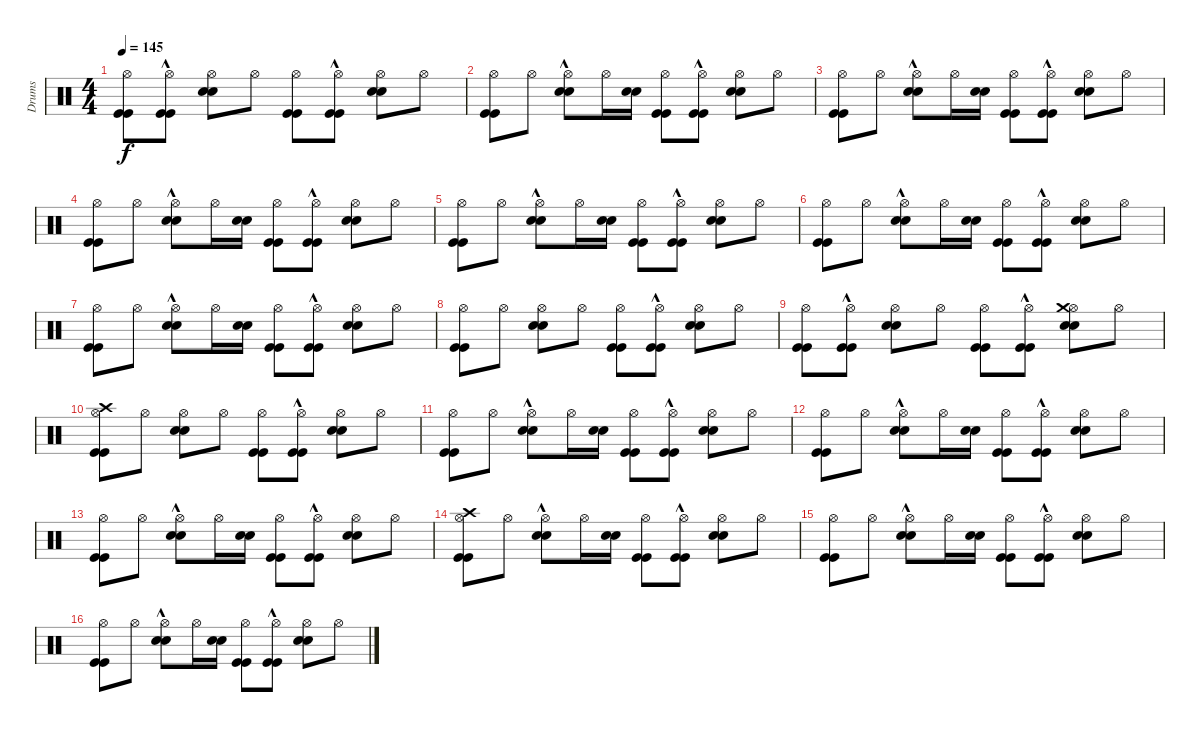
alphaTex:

\track ("Drums" "Drums") {instrument percussion}
\staff {score}
\articulation defaults
\ts (4 4)
\tempo 145
\clef neutral
\ks c
("Kick (hit)" "Kick (hit)" "Hi-Hat (open)").8{dy f} ("Kick (hit)"{hac} "Kick (hit)"{hac} "Hi-Hat (open)").8 ("Snare (hit) 2" "Snare (hit) 2" "Hi-Hat (open)").8 "Hi-Hat (open)".8 ("Kick (hit)" "Kick (hit)" "Hi-Hat (open)").8 ("Kick (hit)"{hac} "Kick (hit)"{hac} "Hi-Hat (open)").8 ("Snare (hit) 2" "Snare (hit) 2" "Hi-Hat (open)").8 "Hi-Hat (open)".8 |
("Kick (hit)" "Kick (hit)" "Hi-Hat (open)").8 "Hi-Hat (open)".8 ("Snare (hit) 2"{hac} "Snare (hit) 2"{hac} "Hi-Hat (open)").8 "Hi-Hat (open)".16 ("Snare (hit) 2" "Snare (hit) 2").16 ("Kick (hit)" "Kick (hit)" "Hi-Hat (open)").8 ("Kick (hit)"{hac} "Kick (hit)"{hac} "Hi-Hat (open)").8 ("Snare (hit) 2" "Snare (hit) 2" "Hi-Hat (open)").8 "Hi-Hat (open)".8 |
("Kick (hit)" "Kick (hit)" "Hi-Hat (open)").8 "Hi-Hat (open)".8 ("Snare (hit) 2"{hac} "Snare (hit) 2"{hac} "Hi-Hat (open)").8 "Hi-Hat (open)".16 ("Snare (hit) 2" "Snare (hit) 2").16 ("Kick (hit)" "Kick (hit)" "Hi-Hat (open)").8 ("Kick (hit)"{hac} "Kick (hit)"{hac} "Hi-Hat (open)").8 ("Snare (hit) 2" "Snare (hit) 2" "Hi-Hat (open)").8 "Hi-Hat (open)".8 |
("Kick (hit)" "Kick (hit)" "Hi-Hat (open)").8 "Hi-Hat (open)".8 ("Snare (hit) 2"{hac} "Snare (hit) 2"{hac} "Hi-Hat (open)").8 "Hi-Hat (open)".16 ("Snare (hit) 2" "Snare (hit) 2").16 ("Kick (hit)" "Kick (hit)" "Hi-Hat (open)").8 ("Kick (hit)"{hac} "Kick (hit)"{hac} "Hi-Hat (open)").8 ("Snare (hit) 2" "Snare (hit) 2" "Hi-Hat (open)").8 "Hi-Hat (open)".8 |
("Kick (hit)" "Kick (hit)" "Hi-Hat (open)").8 "Hi-Hat (open)".8 ("Snare (hit) 2"{hac} "Snare (hit) 2"{hac} "Hi-Hat (open)").8 "Hi-Hat (open)".16 ("Snare (hit) 2" "Snare (hit) 2").16 ("Kick (hit)" "Kick (hit)" "Hi-Hat (open)").8 ("Kick (hit)"{hac} "Kick (hit)"{hac} "Hi-Hat (open)").8 ("Snare (hit) 2" "Snare (hit) 2" "Hi-Hat (open)").8 "Hi-Hat (open)".8 |
("Kick (hit)" "Kick (hit)" "Hi-Hat (open)").8 "Hi-Hat (open)".8 ("Snare (hit) 2"{hac} "Snare (hit) 2"{hac} "Hi-Hat (open)").8 "Hi-Hat (open)".16 ("Snare (hit) 2" "Snare (hit) 2").16 ("Kick (hit)" "Kick (hit)" "Hi-Hat (open)").8 ("Kick (hit)"{hac} "Kick (hit)"{hac} "Hi-Hat (open)").8 ("Snare (hit) 2" "Snare (hit) 2" "Hi-Hat (open)").8 "Hi-Hat (open)".8 |
("Kick (hit)" "Kick (hit)" "Hi-Hat (open)").8 "Hi-Hat (open)".8 ("Snare (hit) 2"{hac} "Snare (hit) 2"{hac} "Hi-Hat (open)").8 "Hi-Hat (open)".16 ("Snare (hit) 2" "Snare (hit) 2").16 ("Kick (hit)" "Kick (hit)" "Hi-Hat (open)").8 ("Kick (hit)"{hac} "Kick (hit)"{hac} "Hi-Hat (open)").8 ("Snare (hit) 2" "Snare (hit) 2" "Hi-Hat (open)").8 "Hi-Hat (open)".8 |
("Kick (hit)" "Kick (hit)" "Hi-Hat (open)").8 "Hi-Hat (open)".8 ("Snare (hit) 2" "Snare (hit) 2" "Hi-Hat (open)").8 "Hi-Hat (open)".8 ("Kick (hit)" "Kick (hit)" "Hi-Hat (open)").8 ("Kick (hit)"{hac} "Kick (hit)"{hac} "Hi-Hat (open)").8 ("Snare (hit) 2" "Snare (hit) 2" "Hi-Hat (open)").8 "Hi-Hat (open)".8 |
("Kick (hit)" "Kick (hit)" "Hi-Hat (open)").8 ("Kick (hit)"{hac} "Kick (hit)"{hac} "Hi-Hat (open)").8 ("Snare (hit) 2" "Snare (hit) 2" "Hi-Hat (open)").8 "Hi-Hat (open)".8 ("Kick (hit)" "Kick (hit)" "Hi-Hat (open)").8 ("Kick (hit)"{hac} "Kick (hit)"{hac} "Hi-Hat (open)").8 ("Snare (hit) 2" "Snare (hit) 2" "Hi-Hat (open)" "Crash medium (hit)").8 "Hi-Hat (open)".8 |
("Kick (hit)" "Kick (hit)" "Hi-Hat (open)" "Crash high (hit)").8 "Hi-Hat (open)".8 ("Snare (hit) 2" "Snare (hit) 2" "Hi-Hat (open)").8 "Hi-Hat (open)".8 ("Kick (hit)" "Kick (hit)" "Hi-Hat (open)").8 ("Kick (hit)"{hac} "Kick (hit)"{hac} "Hi-Hat (open)").8 ("Snare (hit) 2" "Snare (hit) 2" "Hi-Hat (open)").8 "Hi-Hat (open)".8 |
("Kick (hit)" "Kick (hit)" "Hi-Hat (open)").8 "Hi-Hat (open)".8 ("Snare (hit) 2"{hac} "Snare (hit) 2"{hac} "Hi-Hat (open)").8 "Hi-Hat (open)".16 ("Snare (hit) 2" "Snare (hit) 2").16 ("Kick (hit)" "Kick (hit)" "Hi-Hat (open)").8 ("Kick (hit)"{hac} "Kick (hit)"{hac} "Hi-Hat (open)").8 ("Snare (hit) 2" "Snare (hit) 2" "Hi-Hat (open)").8 "Hi-Hat (open)".8 |
("Kick (hit)" "Kick (hit)" "Hi-Hat (open)").8 "Hi-Hat (open)".8 ("Snare (hit) 2"{hac} "Snare (hit) 2"{hac} "Hi-Hat (open)").8 "Hi-Hat (open)".16 ("Snare (hit) 2" "Snare (hit) 2").16 ("Kick (hit)" "Kick (hit)" "Hi-Hat (open)").8 ("Kick (hit)"{hac} "Kick (hit)"{hac} "Hi-Hat (open)").8 ("Snare (hit) 2" "Snare (hit) 2" "Hi-Hat (open)").8 "Hi-Hat (open)".8 |
("Kick (hit)" "Kick (hit)" "Hi-Hat (open)").8 "Hi-Hat (open)".8 ("Snare (hit) 2"{hac} "Snare (hit) 2"{hac} "Hi-Hat (open)").8 "Hi-Hat (open)".16 ("Snare (hit) 2" "Snare (hit) 2").16 ("Kick (hit)" "Kick (hit)" "Hi-Hat (open)").8 ("Kick (hit)"{hac} "Kick (hit)"{hac} "Hi-Hat (open)").8 ("Snare (hit) 2" "Snare (hit) 2" "Hi-Hat (open)").8 "Hi-Hat (open)".8 |
("Kick (hit)" "Kick (hit)" "Hi-Hat (open)" "Crash high (hit)").8 "Hi-Hat (open)".8 ("Snare (hit) 2"{hac} "Snare (hit) 2"{hac} "Hi-Hat (open)").8 "Hi-Hat (open)".16 ("Snare (hit) 2" "Snare (hit) 2").16 ("Kick (hit)" "Kick (hit)" "Hi-Hat (open)").8 ("Kick (hit)"{hac} "Kick (hit)"{hac} "Hi-Hat (open)").8 ("Snare (hit) 2" "Snare (hit) 2" "Hi-Hat (open)").8 "Hi-Hat (open)".8 |
("Kick (hit)" "Kick (hit)" "Hi-Hat (open)").8 "Hi-Hat (open)".8 ("Snare (hit) 2"{hac} "Snare (hit) 2"{hac} "Hi-Hat (open)").8 "Hi-Hat (open)".16 ("Snare (hit) 2" "Snare (hit) 2").16 ("Kick (hit)" "Kick (hit)" "Hi-Hat (open)").8 ("Kick (hit)"{hac} "Kick (hit)"{hac} "Hi-Hat (open)").8 ("Snare (hit) 2" "Snare (hit) 2" "Hi-Hat (open)").8 "Hi-Hat (open)".8 |
("Kick (hit)" "Kick (hit)" "Hi-Hat (open)").8 "Hi-Hat (open)".8 ("Snare (hit) 2"{hac} "Snare (hit) 2"{hac} "Hi-Hat (open)").8 "Hi-Hat (open)".16 ("Snare (hit) 2" "Snare (hit) 2").16 ("Kick (hit)" "Kick (hit)" "Hi-Hat (open)").8 ("Kick (hit)"{hac} "Kick (hit)"{hac} "Hi-Hat (open)").8 ("Snare (hit) 2" "Snare (hit) 2" "Hi-Hat (open)").8 "Hi-Hat (open)".8
